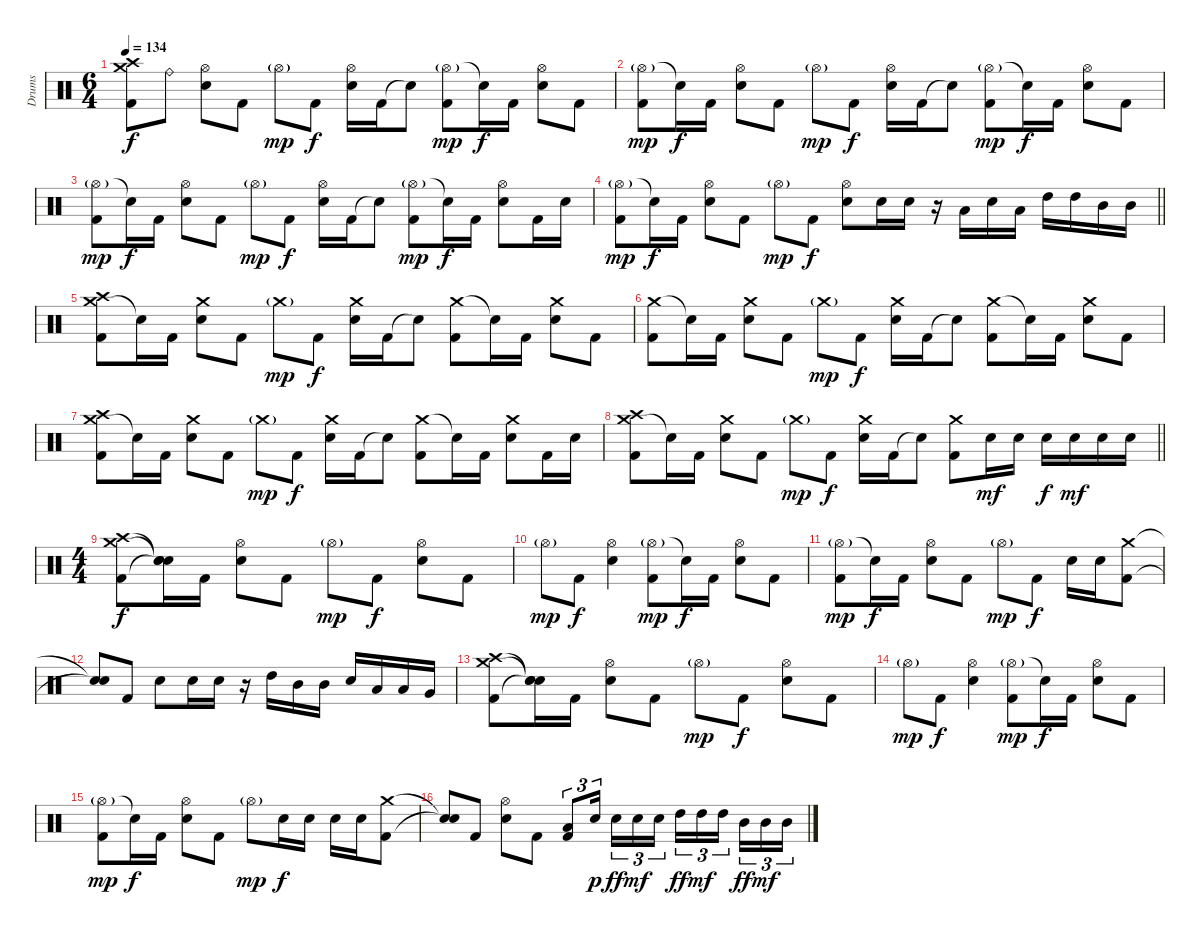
\track ("Drums" "Drums") {instrument percussion}
\staff {score}
\articulation defaults
\ts (6 4)
\tempo 134
\clef neutral
\ks c
("Crash high (hit)" "Crash medium (hit)" "Kick (hit) 2").8{dy f} "Ride (bell)".8 ("Hi-Hat (open)" "Electric Snare (hit)").8 "Kick (hit) 2".8 "Hi-Hat (open)"{g}.8{dy mp} "Kick (hit) 2".8{dy f} ("Hi-Hat (open)" "Electric Snare (hit)").16 "Kick (hit) 2".16 "Snare (hit)"{t}.8 ("Hi-Hat (open)"{g} "Kick (hit) 2").8{dy mp} "Snare (hit)"{t}.16{dy f} "Kick (hit) 2".16 ("Hi-Hat (open)" "Electric Snare (hit)").8 "Kick (hit) 2".8 |
("Hi-Hat (open)"{g} "Kick (hit) 2").8{dy mp} "Snare (hit)"{t}.16{dy f} "Kick (hit) 2".16 ("Hi-Hat (open)" "Electric Snare (hit)").8 "Kick (hit) 2".8 "Hi-Hat (open)"{g}.8{dy mp} "Kick (hit) 2".8{dy f} ("Hi-Hat (open)" "Electric Snare (hit)").16 "Kick (hit) 2".16 "Snare (hit)"{t}.8 ("Hi-Hat (open)"{g} "Kick (hit) 2").8{dy mp} "Snare (hit)"{t}.16{dy f} "Kick (hit) 2".16 ("Hi-Hat (open)" "Electric Snare (hit)").8 "Kick (hit) 2".8 |
("Hi-Hat (open)"{g} "Kick (hit) 2").8{dy mp} "Snare (hit)"{t}.16{dy f} "Kick (hit) 2".16 ("Hi-Hat (open)" "Electric Snare (hit)").8 "Kick (hit) 2".8 "Hi-Hat (open)"{g}.8{dy mp} "Kick (hit) 2".8{dy f} ("Hi-Hat (open)" "Electric Snare (hit)").16 "Kick (hit) 2".16 "Snare (hit)"{t}.8 ("Hi-Hat (open)"{g} "Kick (hit) 2").8{dy mp} "Snare (hit)"{t}.16{dy f} "Kick (hit) 2".16 ("Hi-Hat (open)" "Electric Snare (hit)").8 "Kick (hit) 2".16 "Electric Snare (hit)".16 |
\barLineRight lightlight
("Hi-Hat (open)"{g} "Kick (hit) 2").8{dy mp} "Snare (hit)"{t}.16{dy f} "Kick (hit) 2".16 ("Hi-Hat (open)" "Electric Snare (hit)").8 "Kick (hit) 2".8 "Hi-Hat (open)"{g}.8{dy mp} "Kick (hit) 2".8{dy f} ("Hi-Hat (open)" "Electric Snare (hit)").8 "Electric Snare (hit)".16 "Electric Snare (hit)".16 r.16 "Low Tom (hit)".16 "Electric Snare (hit)".16 "Low Tom (hit)".16 "High Tom (hit)".16 "High Tom (hit)".16 "Mid Tom (hit)".16 "Mid Tom (hit)".16 |
("Crash medium (hit)" "Crash high (hit)" "Kick (hit) 2").8 "Snare (hit)"{t}.16 "Kick (hit) 2".16 ("Crash medium (hit)" "Electric Snare (hit)").8 "Kick (hit) 2".8 "Crash medium (hit)"{g}.8{dy mp} "Kick (hit) 2".8{dy f} ("Crash medium (hit)" "Electric Snare (hit)").16 "Kick (hit) 2".16 "Snare (hit)"{t}.8 ("Crash medium (hit)" "Kick (hit) 2").8 "Snare (hit)"{t}.16 "Kick (hit) 2".16 ("Crash medium (hit)" "Electric Snare (hit)").8 "Kick (hit) 2".8 |
("Crash medium (hit)" "Kick (hit) 2").8 "Snare (hit)"{t}.16 "Kick (hit) 2".16 ("Crash medium (hit)" "Electric Snare (hit)").8 "Kick (hit) 2".8 "Crash medium (hit)"{g}.8{dy mp} "Kick (hit) 2".8{dy f} ("Crash medium (hit)" "Electric Snare (hit)").16 "Kick (hit) 2".16 "Snare (hit)"{t}.8 ("Crash medium (hit)" "Kick (hit) 2").8 "Snare (hit)"{t}.16 "Kick (hit) 2".16 ("Crash medium (hit)" "Electric Snare (hit)").8 "Kick (hit) 2".8 |
("Crash medium (hit)" "Crash high (hit)" "Kick (hit) 2").8 "Snare (hit)"{t}.16 "Kick (hit) 2".16 ("Crash medium (hit)" "Electric Snare (hit)").8 "Kick (hit) 2".8 "Crash medium (hit)"{g}.8{dy mp} "Kick (hit) 2".8{dy f} ("Crash medium (hit)" "Electric Snare (hit)").16 "Kick (hit) 2".16 "Snare (hit)"{t}.8 ("Crash medium (hit)" "Kick (hit) 2").8 "Snare (hit)"{t}.16 "Kick (hit) 2".16 ("Crash medium (hit)" "Electric Snare (hit)").8 "Kick (hit) 2".16 "Electric Snare (hit)".16 |
\barLineRight lightlight
("Crash medium (hit)" "Crash high (hit)" "Kick (hit) 2").8 "Snare (hit)"{t}.16 "Kick (hit) 2".16 ("Crash medium (hit)" "Electric Snare (hit)").8 "Kick (hit) 2".8 "Crash medium (hit)"{g}.8{dy mp} "Kick (hit) 2".8{dy f} ("Crash medium (hit)" "Electric Snare (hit)").16 "Kick (hit) 2".16 "Snare (hit)"{t}.8 ("Crash medium (hit)" "Kick (hit) 2").8 "Electric Snare (hit)".16{dy mf} "Electric Snare (hit)".16 "Electric Snare (hit)".16{dy f} "Electric Snare (hit)".16{dy mf} "Electric Snare (hit)".16 "Electric Snare (hit)".16 |
\ts (4 4)
("Crash high (hit)" "Crash medium (hit)" "Kick (hit) 2").8{dy f} ("Snare (hit)"{t} "Snare (hit)"{t} "Snare (hit)"{t}).16 "Kick (hit) 2".16 ("Hi-Hat (open)" "Electric Snare (hit)").8 "Kick (hit) 2".8 "Hi-Hat (open)"{g}.8{dy mp} "Kick (hit) 2".8{dy f} ("Hi-Hat (open)" "Electric Snare (hit)").8 "Kick (hit) 2".8 |
"Hi-Hat (open)"{g}.8{dy mp} "Kick (hit) 2".8{dy f} ("Hi-Hat (open)" "Electric Snare (hit)").4 ("Hi-Hat (open)"{g} "Kick (hit) 2").8{dy mp} "Snare (hit)"{t}.16{dy f} "Kick (hit) 2".16 ("Hi-Hat (open)" "Electric Snare (hit)").8 "Kick (hit) 2".8 |
("Hi-Hat (open)"{g} "Kick (hit) 2").8{dy mp} "Snare (hit)"{t}.16{dy f} "Kick (hit) 2".16 ("Hi-Hat (open)" "Electric Snare (hit)").8 "Kick (hit) 2".8 "Hi-Hat (open)"{g}.8{dy mp} "Kick (hit) 2".8{dy f} "Electric Snare (hit)".16 "Electric Snare (hit)".16 ("Crash medium (hit)" "Kick (hit) 2").8 |
("Snare (hit)"{t} "Snare (hit)"{t}).8 "Kick (hit) 2".8 "Electric Snare (hit)".8 "Electric Snare (hit)".16 "Electric Snare (hit)".16 r.16 "High Tom (hit)".16 "Mid Tom (hit)".16 "Mid Tom (hit)".16 "Electric Snare (hit)".16 "Low Tom (hit)".16 "Low Tom (hit)".16 "Very Low Tom (hit)".16 |
("Crash high (hit)" "Crash medium (hit)" "Kick (hit) 2").8 ("Snare (hit)"{t} "Snare (hit)"{t} "Snare (hit)"{t}).16 "Kick (hit) 2".16 ("Hi-Hat (open)" "Electric Snare (hit)").8 "Kick (hit) 2".8 "Hi-Hat (open)"{g}.8{dy mp} "Kick (hit) 2".8{dy f} ("Hi-Hat (open)" "Electric Snare (hit)").8 "Kick (hit) 2".8 |
"Hi-Hat (open)"{g}.8{dy mp} "Kick (hit) 2".8{dy f} ("Hi-Hat (open)" "Electric Snare (hit)").4 ("Hi-Hat (open)"{g} "Kick (hit) 2").8{dy mp} "Snare (hit)"{t}.16{dy f} "Kick (hit) 2".16 ("Hi-Hat (open)" "Electric Snare (hit)").8 "Kick (hit) 2".8 |
("Hi-Hat (open)"{g} "Kick (hit) 2").8{dy mp} "Snare (hit)"{t}.16{dy f} "Kick (hit) 2".16 ("Hi-Hat (open)" "Electric Snare (hit)").8 "Kick (hit) 2".8 "Hi-Hat (open)"{g}.8{dy mp} "Electric Snare (hit)".16{dy f} "Electric Snare (hit)".16 "Electric Snare (hit)".16 "Electric Snare (hit)".16 ("Crash medium (hit)" "Kick (hit) 2").8 |
("Snare (hit)"{t} "Snare (hit)"{t}).8 "Kick (hit) 2".8 ("Hi-Hat (open)" "Electric Snare (hit)").8 "Kick (hit) 2".8 ("Low Tom (hit)" "Kick (hit) 2").8{tu (3 2)} "Electric Snare (hit)".16{tu (3 2) dy p} "Electric Snare (hit)".16{tu (3 2) dy ff} "Electric Snare (hit)".16{tu (3 2) dy mf} "Electric Snare (hit)".16{tu (3 2)} "High Tom (hit)".16{tu (3 2) dy ff} "High Tom (hit)".16{tu (3 2) dy mf} "High Tom (hit)".16{tu (3 2)} "Mid Tom (hit)".16{tu (3 2) dy ff} "Mid Tom (hit)".16{tu (3 2) dy mf} "Mid Tom (hit)".16{tu (3 2)}
